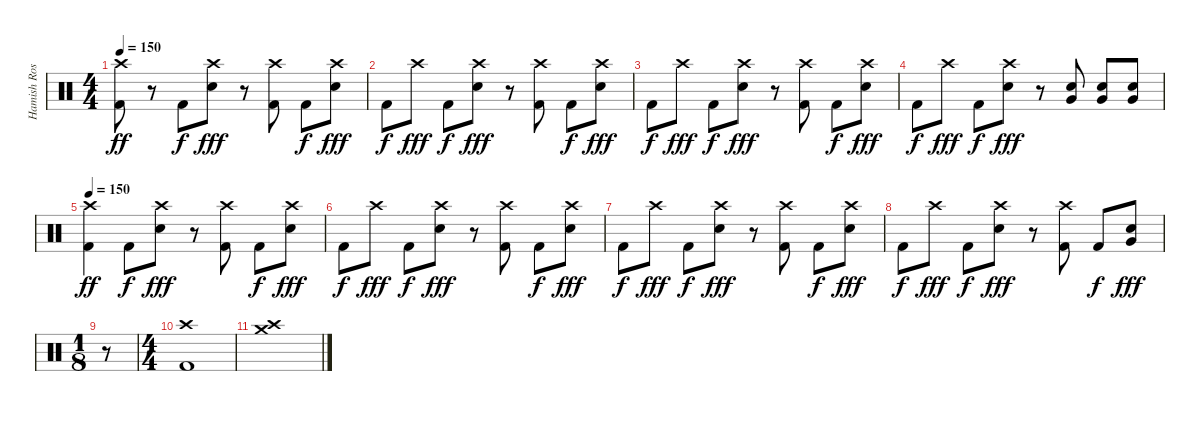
\track ("Hamish Rosser" "Hamish Ros") {instrument percussion}
\staff {score}
\articulation defaults
\ts (4 4)
\tempo 150
\clef neutral
\ks c
("Crash high (hit)" "Kick (hit) 2").8{dy ff} r.8 "Kick (hit) 2".8{dy f} ("Crash high (hit)" "Electric Snare (hit)").8{dy fff} r.8 ("Crash high (hit)" "Kick (hit) 2").8 "Kick (hit) 2".8{dy f} ("Crash high (hit)" "Electric Snare (hit)").8{dy fff} |
"Kick (hit) 2".8{dy f} "Crash high (hit)".8{dy fff} "Kick (hit) 2".8{dy f} ("Crash high (hit)" "Electric Snare (hit)").8{dy fff} r.8 ("Crash high (hit)" "Kick (hit) 2").8 "Kick (hit) 2".8{dy f} ("Crash high (hit)" "Electric Snare (hit)").8{dy fff} |
"Kick (hit) 2".8{dy f} "Crash high (hit)".8{dy fff} "Kick (hit) 2".8{dy f} ("Crash high (hit)" "Electric Snare (hit)").8{dy fff} r.8 ("Crash high (hit)" "Kick (hit) 2").8 "Kick (hit) 2".8{dy f} ("Crash high (hit)" "Electric Snare (hit)").8{dy fff} |
"Kick (hit) 2".8{dy f} "Crash high (hit)".8{dy fff} "Kick (hit) 2".8{dy f} ("Crash high (hit)" "Electric Snare (hit)").8{dy fff} r.8 ("Electric Snare (hit)" "Very Low Tom (hit)").8 ("Electric Snare (hit)" "Very Low Tom (hit)").8 ("Electric Snare (hit)" "Very Low Tom (hit)").8 |
\tempo 150
("Crash high (hit)" "Kick (hit) 2").4{dy ff} "Kick (hit) 2".8{dy f} ("Crash high (hit)" "Electric Snare (hit)").8{dy fff} r.8 ("Crash high (hit)" "Kick (hit) 2").8 "Kick (hit) 2".8{dy f} ("Crash high (hit)" "Electric Snare (hit)").8{dy fff} |
"Kick (hit) 2".8{dy f} "Crash high (hit)".8{dy fff} "Kick (hit) 2".8{dy f} ("Crash high (hit)" "Electric Snare (hit)").8{dy fff} r.8 ("Crash high (hit)" "Kick (hit) 2").8 "Kick (hit) 2".8{dy f} ("Crash high (hit)" "Electric Snare (hit)").8{dy fff} |
"Kick (hit) 2".8{dy f} "Crash high (hit)".8{dy fff} "Kick (hit) 2".8{dy f} ("Crash high (hit)" "Electric Snare (hit)").8{dy fff} r.8 ("Crash high (hit)" "Kick (hit) 2").8 "Kick (hit) 2".8{dy f} ("Crash high (hit)" "Electric Snare (hit)").8{dy fff} |
"Kick (hit) 2".8{dy f} "Crash high (hit)".8{dy fff} "Kick (hit) 2".8{dy f} ("Crash high (hit)" "Electric Snare (hit)").8{dy fff} r.8 ("Crash high (hit)" "Kick (hit) 2").8 "Kick (hit) 2".8{dy f} ("Electric Snare (hit)" "Very Low Tom (hit)").8{dy fff} |
\ts (1 8)
r.8 |
\ts (4 4)
("Crash high (hit)" "Kick (hit) 2").1 |
("Crash high (hit)" "Crash medium (hit)").1
